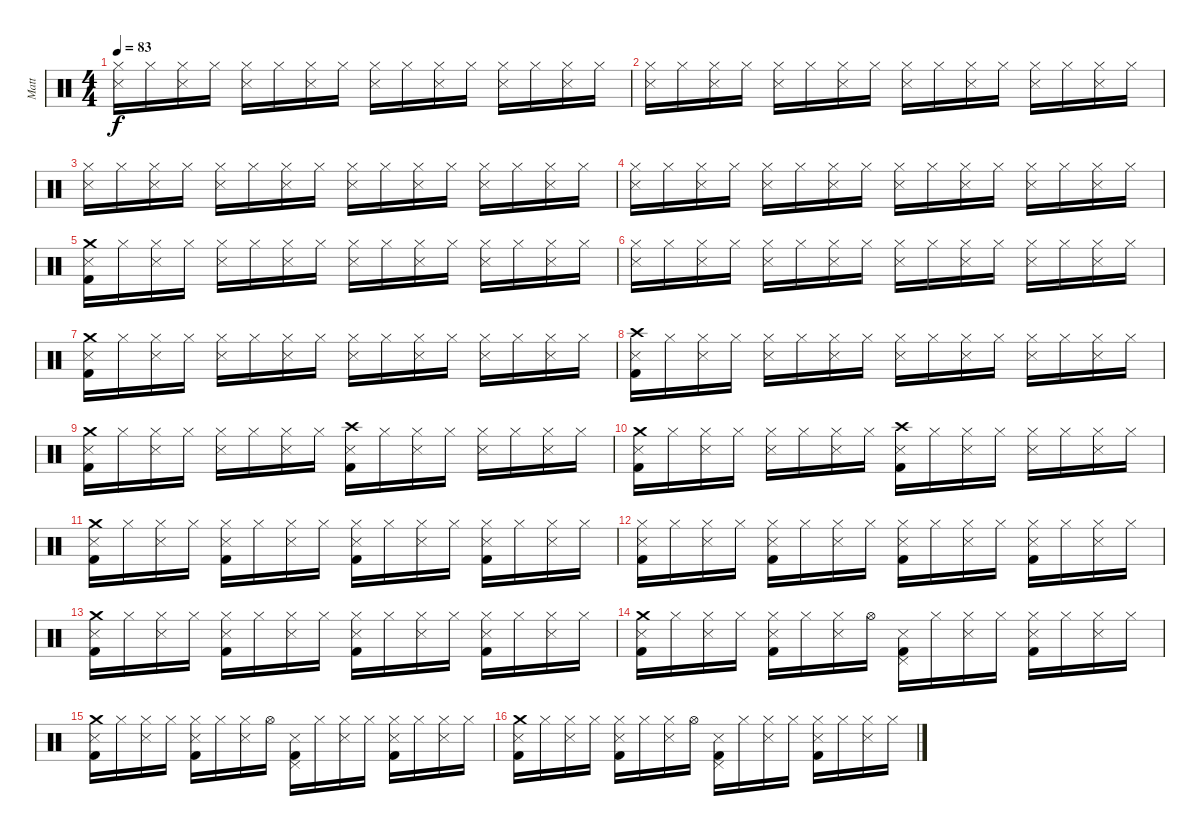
\track ("Matt" "Matt") {instrument percussion}
\staff {score}
\articulation defaults
\ts (4 4)
\tempo 83
\clef neutral
\ks c
("Hi-Hat (closed)" "Snare (side stick) 3").16{dy f} "Hi-Hat (closed)".16 ("Hi-Hat (closed)" "Snare (side stick) 3").16 "Hi-Hat (closed)".16 ("Hi-Hat (closed)" "Snare (side stick) 3").16 "Hi-Hat (closed)".16 ("Hi-Hat (closed)" "Snare (side stick) 3").16 "Hi-Hat (closed)".16 ("Hi-Hat (closed)" "Snare (side stick) 3").16 "Hi-Hat (closed)".16 ("Hi-Hat (closed)" "Snare (side stick) 3").16 "Hi-Hat (closed)".16 ("Hi-Hat (closed)" "Snare (side stick) 3").16 "Hi-Hat (closed)".16 ("Hi-Hat (closed)" "Snare (side stick) 3").16 "Hi-Hat (closed)".16 |
("Hi-Hat (closed)" "Snare (side stick) 3").16 "Hi-Hat (closed)".16 ("Hi-Hat (closed)" "Snare (side stick) 3").16 "Hi-Hat (closed)".16 ("Hi-Hat (closed)" "Snare (side stick) 3").16 "Hi-Hat (closed)".16 ("Hi-Hat (closed)" "Snare (side stick) 3").16 "Hi-Hat (closed)".16 ("Hi-Hat (closed)" "Snare (side stick) 3").16 "Hi-Hat (closed)".16 ("Hi-Hat (closed)" "Snare (side stick) 3").16 "Hi-Hat (closed)".16 ("Hi-Hat (closed)" "Snare (side stick) 3").16 "Hi-Hat (closed)".16 ("Hi-Hat (closed)" "Snare (side stick) 3").16 "Hi-Hat (closed)".16 |
("Hi-Hat (closed)" "Snare (side stick) 3").16 "Hi-Hat (closed)".16 ("Hi-Hat (closed)" "Snare (side stick) 3").16 "Hi-Hat (closed)".16 ("Hi-Hat (closed)" "Snare (side stick) 3").16 "Hi-Hat (closed)".16 ("Hi-Hat (closed)" "Snare (side stick) 3").16 "Hi-Hat (closed)".16 ("Hi-Hat (closed)" "Snare (side stick) 3").16 "Hi-Hat (closed)".16 ("Hi-Hat (closed)" "Snare (side stick) 3").16 "Hi-Hat (closed)".16 ("Hi-Hat (closed)" "Snare (side stick) 3").16 "Hi-Hat (closed)".16 ("Hi-Hat (closed)" "Snare (side stick) 3").16 "Hi-Hat (closed)".16 |
("Hi-Hat (closed)" "Snare (side stick) 3").16 "Hi-Hat (closed)".16 ("Hi-Hat (closed)" "Snare (side stick) 3").16 "Hi-Hat (closed)".16 ("Hi-Hat (closed)" "Snare (side stick) 3").16 "Hi-Hat (closed)".16 ("Hi-Hat (closed)" "Snare (side stick) 3").16 "Hi-Hat (closed)".16 ("Hi-Hat (closed)" "Snare (side stick) 3").16 "Hi-Hat (closed)".16 ("Hi-Hat (closed)" "Snare (side stick) 3").16 "Hi-Hat (closed)".16 ("Hi-Hat (closed)" "Snare (side stick) 3").16 "Hi-Hat (closed)".16 ("Hi-Hat (closed)" "Snare (side stick) 3").16 "Hi-Hat (closed)".16 |
("Crash medium (hit)" "Snare (side stick) 3" "Kick (hit) 2").16 "Hi-Hat (closed)".16 ("Hi-Hat (closed)" "Snare (side stick) 3").16 "Hi-Hat (closed)".16 ("Hi-Hat (closed)" "Snare (side stick) 3").16 "Hi-Hat (closed)".16 ("Hi-Hat (closed)" "Snare (side stick) 3").16 "Hi-Hat (closed)".16 ("Hi-Hat (closed)" "Snare (side stick) 3").16 "Hi-Hat (closed)".16 ("Hi-Hat (closed)" "Snare (side stick) 3").16 "Hi-Hat (closed)".16 ("Hi-Hat (closed)" "Snare (side stick) 3").16 "Hi-Hat (closed)".16 ("Hi-Hat (closed)" "Snare (side stick) 3").16 "Hi-Hat (closed)".16 |
("Hi-Hat (closed)" "Snare (side stick) 3").16 "Hi-Hat (closed)".16 ("Hi-Hat (closed)" "Snare (side stick) 3").16 "Hi-Hat (closed)".16 ("Hi-Hat (closed)" "Snare (side stick) 3").16 "Hi-Hat (closed)".16 ("Hi-Hat (closed)" "Snare (side stick) 3").16 "Hi-Hat (closed)".16 ("Hi-Hat (closed)" "Snare (side stick) 3").16 "Hi-Hat (closed)".16 ("Hi-Hat (closed)" "Snare (side stick) 3").16 "Hi-Hat (closed)".16 ("Hi-Hat (closed)" "Snare (side stick) 3").16 "Hi-Hat (closed)".16 ("Hi-Hat (closed)" "Snare (side stick) 3").16 "Hi-Hat (closed)".16 |
("Crash medium (hit)" "Snare (side stick) 3" "Kick (hit) 2").16 "Hi-Hat (closed)".16 ("Hi-Hat (closed)" "Snare (side stick) 3").16 "Hi-Hat (closed)".16 ("Hi-Hat (closed)" "Snare (side stick) 3").16 "Hi-Hat (closed)".16 ("Hi-Hat (closed)" "Snare (side stick) 3").16 "Hi-Hat (closed)".16 ("Hi-Hat (closed)" "Snare (side stick) 3").16 "Hi-Hat (closed)".16 ("Hi-Hat (closed)" "Snare (side stick) 3").16 "Hi-Hat (closed)".16 ("Hi-Hat (closed)" "Snare (side stick) 3").16 "Hi-Hat (closed)".16 ("Hi-Hat (closed)" "Snare (side stick) 3").16 "Hi-Hat (closed)".16 |
("Crash high (hit)" "Snare (side stick) 3" "Kick (hit) 2").16 "Hi-Hat (closed)".16 ("Hi-Hat (closed)" "Snare (side stick) 3").16 "Hi-Hat (closed)".16 ("Hi-Hat (closed)" "Snare (side stick) 3").16 "Hi-Hat (closed)".16 ("Hi-Hat (closed)" "Snare (side stick) 3").16 "Hi-Hat (closed)".16 ("Hi-Hat (closed)" "Snare (side stick) 3").16 "Hi-Hat (closed)".16 ("Hi-Hat (closed)" "Snare (side stick) 3").16 "Hi-Hat (closed)".16 ("Hi-Hat (closed)" "Snare (side stick) 3").16 "Hi-Hat (closed)".16 ("Hi-Hat (closed)" "Snare (side stick) 3").16 "Hi-Hat (closed)".16 |
("Crash medium (hit)" "Snare (side stick) 3" "Kick (hit) 2").16 "Hi-Hat (closed)".16 ("Hi-Hat (closed)" "Snare (side stick) 3").16 "Hi-Hat (closed)".16 ("Hi-Hat (closed)" "Snare (side stick) 3").16 "Hi-Hat (closed)".16 ("Hi-Hat (closed)" "Snare (side stick) 3").16 "Hi-Hat (closed)".16 ("Crash high (hit)" "Snare (side stick) 3" "Kick (hit) 2").16 "Hi-Hat (closed)".16 ("Hi-Hat (closed)" "Snare (side stick) 3").16 "Hi-Hat (closed)".16 ("Hi-Hat (closed)" "Snare (side stick) 3").16 "Hi-Hat (closed)".16 ("Hi-Hat (closed)" "Snare (side stick) 3").16 "Hi-Hat (closed)".16 |
("Crash medium (hit)" "Snare (side stick) 3" "Kick (hit) 2").16 "Hi-Hat (closed)".16 ("Hi-Hat (closed)" "Snare (side stick) 3").16 "Hi-Hat (closed)".16 ("Hi-Hat (closed)" "Snare (side stick) 3").16 "Hi-Hat (closed)".16 ("Hi-Hat (closed)" "Snare (side stick) 3").16 "Hi-Hat (closed)".16 ("Crash high (hit)" "Snare (side stick) 3" "Kick (hit) 2").16 "Hi-Hat (closed)".16 ("Hi-Hat (closed)" "Snare (side stick) 3").16 "Hi-Hat (closed)".16 ("Hi-Hat (closed)" "Snare (side stick) 3").16 "Hi-Hat (closed)".16 ("Hi-Hat (closed)" "Snare (side stick) 3").16 "Hi-Hat (closed)".16 |
("Crash medium (hit)" "Snare (side stick) 3" "Kick (hit) 2").16 "Hi-Hat (closed)".16 ("Hi-Hat (closed)" "Snare (side stick) 3").16 "Hi-Hat (closed)".16 ("Hi-Hat (closed)" "Snare (side stick) 3" "Kick (hit) 2").16 "Hi-Hat (closed)".16 ("Hi-Hat (closed)" "Snare (side stick) 3").16 "Hi-Hat (closed)".16 ("Hi-Hat (closed)" "Snare (side stick) 3" "Kick (hit) 2").16 "Hi-Hat (closed)".16 ("Hi-Hat (closed)" "Snare (side stick) 3").16 "Hi-Hat (closed)".16 ("Hi-Hat (closed)" "Snare (side stick) 3" "Kick (hit) 2").16 "Hi-Hat (closed)".16 ("Hi-Hat (closed)" "Snare (side stick) 3").16 "Hi-Hat (closed)".16 |
("Hi-Hat (closed)" "Snare (side stick) 3" "Kick (hit) 2").16 "Hi-Hat (closed)".16 ("Hi-Hat (closed)" "Snare (side stick) 3").16 "Hi-Hat (closed)".16 ("Hi-Hat (closed)" "Snare (side stick) 3" "Kick (hit) 2").16 "Hi-Hat (closed)".16 ("Hi-Hat (closed)" "Snare (side stick) 3").16 "Hi-Hat (closed)".16 ("Hi-Hat (closed)" "Snare (side stick) 3" "Kick (hit) 2").16 "Hi-Hat (closed)".16 ("Hi-Hat (closed)" "Snare (side stick) 3").16 "Hi-Hat (closed)".16 ("Hi-Hat (closed)" "Snare (side stick) 3" "Kick (hit) 2").16 "Hi-Hat (closed)".16 ("Hi-Hat (closed)" "Snare (side stick) 3").16 "Hi-Hat (closed)".16 |
("Crash medium (hit)" "Snare (side stick) 3" "Kick (hit) 2").16 "Hi-Hat (closed)".16 ("Hi-Hat (closed)" "Snare (side stick) 3").16 "Hi-Hat (closed)".16 ("Hi-Hat (closed)" "Snare (side stick) 3" "Kick (hit) 2").16 "Hi-Hat (closed)".16 ("Hi-Hat (closed)" "Snare (side stick) 3").16 "Hi-Hat (closed)".16 ("Hi-Hat (closed)" "Snare (side stick) 3" "Kick (hit) 2").16 "Hi-Hat (closed)".16 ("Hi-Hat (closed)" "Snare (side stick) 3").16 "Hi-Hat (closed)".16 ("Hi-Hat (closed)" "Snare (side stick) 3" "Kick (hit) 2").16 "Hi-Hat (closed)".16 ("Hi-Hat (closed)" "Snare (side stick) 3").16 "Hi-Hat (closed)".16 |
("Crash medium (hit)" "Snare (side stick) 3" "Kick (hit) 2").16 "Hi-Hat (closed)".16 ("Hi-Hat (closed)" "Snare (side stick) 3").16 "Hi-Hat (closed)".16 ("Hi-Hat (closed)" "Snare (side stick) 3" "Kick (hit) 2").16 "Hi-Hat (closed)".16 ("Hi-Hat (closed)" "Snare (side stick) 3").16 "Hi-Hat (open)".16 ("Pedal Hi-Hat (hit)" "Snare (side stick) 3" "Kick (hit) 2").16 "Hi-Hat (closed)".16 ("Hi-Hat (closed)" "Snare (side stick) 3").16 "Hi-Hat (closed)".16 ("Hi-Hat (closed)" "Snare (side stick) 3" "Kick (hit) 2").16 "Hi-Hat (closed)".16 ("Hi-Hat (closed)" "Snare (side stick) 3").16 "Hi-Hat (closed)".16 |
("Crash medium (hit)" "Snare (side stick) 3" "Kick (hit) 2").16 "Hi-Hat (closed)".16 ("Hi-Hat (closed)" "Snare (side stick) 3").16 "Hi-Hat (closed)".16 ("Hi-Hat (closed)" "Snare (side stick) 3" "Kick (hit) 2").16 "Hi-Hat (closed)".16 ("Hi-Hat (closed)" "Snare (side stick) 3").16 "Hi-Hat (open)".16 ("Pedal Hi-Hat (hit)" "Snare (side stick) 3" "Kick (hit) 2").16 "Hi-Hat (closed)".16 ("Hi-Hat (closed)" "Snare (side stick) 3").16 "Hi-Hat (closed)".16 ("Hi-Hat (closed)" "Snare (side stick) 3" "Kick (hit) 2").16 "Hi-Hat (closed)".16 ("Hi-Hat (closed)" "Snare (side stick) 3").16 "Hi-Hat (closed)".16 |
("Crash medium (hit)" "Snare (side stick) 3" "Kick (hit) 2").16 "Hi-Hat (closed)".16 ("Hi-Hat (closed)" "Snare (side stick) 3").16 "Hi-Hat (closed)".16 ("Hi-Hat (closed)" "Snare (side stick) 3" "Kick (hit) 2").16 "Hi-Hat (closed)".16 ("Hi-Hat (closed)" "Snare (side stick) 3").16 "Hi-Hat (open)".16 ("Pedal Hi-Hat (hit)" "Snare (side stick) 3" "Kick (hit) 2").16 "Hi-Hat (closed)".16 ("Hi-Hat (closed)" "Snare (side stick) 3").16 "Hi-Hat (closed)".16 ("Hi-Hat (closed)" "Snare (side stick) 3" "Kick (hit) 2").16 "Hi-Hat (closed)".16 ("Hi-Hat (closed)" "Snare (side stick) 3").16 "Hi-Hat (closed)".16
